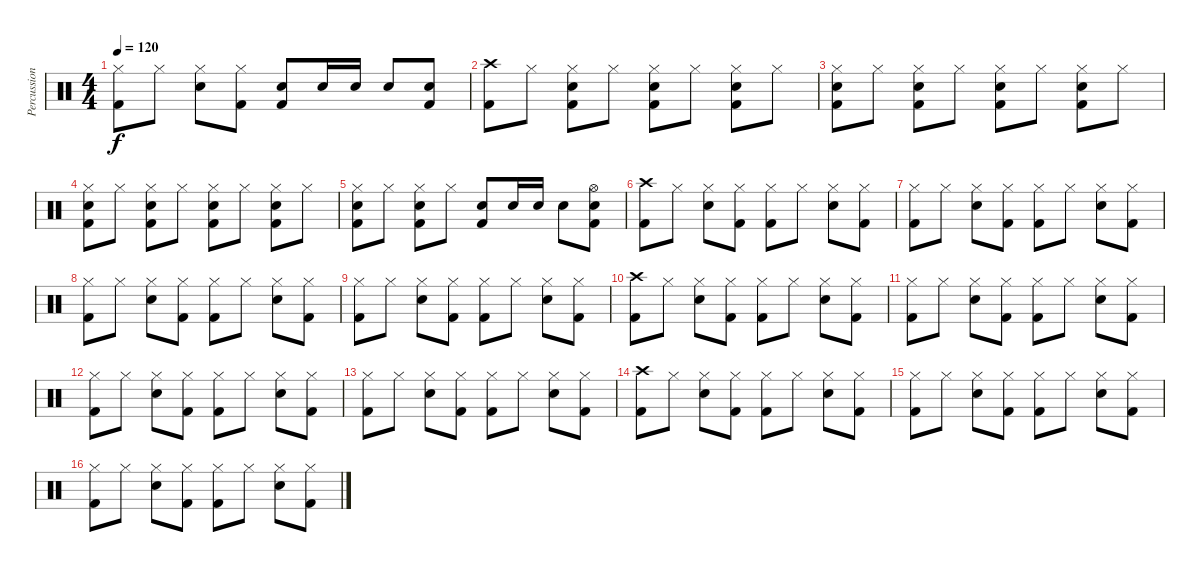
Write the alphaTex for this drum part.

\track ("Percussion" "Percussion") {instrument percussion}
\staff {score}
\articulation defaults
\ts (4 4)
\tempo 120
\clef neutral
\ks c
("Hi-Hat (closed)" "Kick (hit) 2").8{dy f} "Hi-Hat (closed)".8 ("Hi-Hat (closed)" "Snare (hit) 2").8 ("Hi-Hat (closed)" "Kick (hit) 2").8 ("Snare (hit) 2" "Kick (hit) 2").8 "Snare (hit) 2".16 "Snare (hit) 2".16 "Snare (hit) 2".8 ("Snare (hit) 2" "Kick (hit) 2").8 |
("Crash high (hit)" "Kick (hit) 2").8 "Hi-Hat (closed)".8 ("Hi-Hat (closed)" "Snare (hit) 2" "Kick (hit) 2").8 "Hi-Hat (closed)".8 ("Hi-Hat (closed)" "Snare (hit) 2" "Kick (hit) 2").8 "Hi-Hat (closed)".8 ("Hi-Hat (closed)" "Snare (hit) 2" "Kick (hit) 2").8 "Hi-Hat (closed)".8 |
("Hi-Hat (closed)" "Snare (hit) 2" "Kick (hit) 2").8 "Hi-Hat (closed)".8 ("Hi-Hat (closed)" "Snare (hit) 2" "Kick (hit) 2").8 "Hi-Hat (closed)".8 ("Hi-Hat (closed)" "Snare (hit) 2" "Kick (hit) 2").8 "Hi-Hat (closed)".8 ("Hi-Hat (closed)" "Snare (hit) 2" "Kick (hit) 2").8 "Hi-Hat (closed)".8 |
("Hi-Hat (closed)" "Snare (hit) 2" "Kick (hit) 2").8 "Hi-Hat (closed)".8 ("Hi-Hat (closed)" "Snare (hit) 2" "Kick (hit) 2").8 "Hi-Hat (closed)".8 ("Hi-Hat (closed)" "Snare (hit) 2" "Kick (hit) 2").8 "Hi-Hat (closed)".8 ("Hi-Hat (closed)" "Snare (hit) 2" "Kick (hit) 2").8 "Hi-Hat (closed)".8 |
("Hi-Hat (closed)" "Snare (hit) 2" "Kick (hit) 2").8 "Hi-Hat (closed)".8 ("Hi-Hat (closed)" "Snare (hit) 2" "Kick (hit) 2").8 "Hi-Hat (closed)".8 ("Snare (hit) 2" "Kick (hit) 2").8 "Snare (hit) 2".16 "Snare (hit) 2".16 "Snare (hit) 2".8 ("Hi-Hat (open)" "Snare (hit) 2" "Kick (hit) 2").8 |
("Crash high (hit)" "Kick (hit) 2").8 "Hi-Hat (closed)".8 ("Hi-Hat (closed)" "Snare (hit) 2").8 ("Hi-Hat (closed)" "Kick (hit) 2").8 ("Hi-Hat (closed)" "Kick (hit) 2").8 "Hi-Hat (closed)".8 ("Hi-Hat (closed)" "Snare (hit) 2").8 ("Hi-Hat (closed)" "Kick (hit) 2").8 |
("Hi-Hat (closed)" "Kick (hit) 2").8 "Hi-Hat (closed)".8 ("Hi-Hat (closed)" "Snare (hit) 2").8 ("Hi-Hat (closed)" "Kick (hit) 2").8 ("Hi-Hat (closed)" "Kick (hit) 2").8 "Hi-Hat (closed)".8 ("Hi-Hat (closed)" "Snare (hit) 2").8 ("Hi-Hat (closed)" "Kick (hit) 2").8 |
("Hi-Hat (closed)" "Kick (hit) 2").8 "Hi-Hat (closed)".8 ("Hi-Hat (closed)" "Snare (hit) 2").8 ("Hi-Hat (closed)" "Kick (hit) 2").8 ("Hi-Hat (closed)" "Kick (hit) 2").8 "Hi-Hat (closed)".8 ("Hi-Hat (closed)" "Snare (hit) 2").8 ("Hi-Hat (closed)" "Kick (hit) 2").8 |
("Hi-Hat (closed)" "Kick (hit) 2").8 "Hi-Hat (closed)".8 ("Hi-Hat (closed)" "Snare (hit) 2").8 ("Hi-Hat (closed)" "Kick (hit) 2").8 ("Hi-Hat (closed)" "Kick (hit) 2").8 "Hi-Hat (closed)".8 ("Hi-Hat (closed)" "Snare (hit) 2").8 ("Hi-Hat (closed)" "Kick (hit) 2").8 |
("Crash high (hit)" "Kick (hit) 2").8 "Hi-Hat (closed)".8 ("Hi-Hat (closed)" "Snare (hit) 2").8 ("Hi-Hat (closed)" "Kick (hit) 2").8 ("Hi-Hat (closed)" "Kick (hit) 2").8 "Hi-Hat (closed)".8 ("Hi-Hat (closed)" "Snare (hit) 2").8 ("Hi-Hat (closed)" "Kick (hit) 2").8 |
("Hi-Hat (closed)" "Kick (hit) 2").8 "Hi-Hat (closed)".8 ("Hi-Hat (closed)" "Snare (hit) 2").8 ("Hi-Hat (closed)" "Kick (hit) 2").8 ("Hi-Hat (closed)" "Kick (hit) 2").8 "Hi-Hat (closed)".8 ("Hi-Hat (closed)" "Snare (hit) 2").8 ("Hi-Hat (closed)" "Kick (hit) 2").8 |
("Hi-Hat (closed)" "Kick (hit) 2").8 "Hi-Hat (closed)".8 ("Hi-Hat (closed)" "Snare (hit) 2").8 ("Hi-Hat (closed)" "Kick (hit) 2").8 ("Hi-Hat (closed)" "Kick (hit) 2").8 "Hi-Hat (closed)".8 ("Hi-Hat (closed)" "Snare (hit) 2").8 ("Hi-Hat (closed)" "Kick (hit) 2").8 |
("Hi-Hat (closed)" "Kick (hit) 2").8 "Hi-Hat (closed)".8 ("Hi-Hat (closed)" "Snare (hit) 2").8 ("Hi-Hat (closed)" "Kick (hit) 2").8 ("Hi-Hat (closed)" "Kick (hit) 2").8 "Hi-Hat (closed)".8 ("Hi-Hat (closed)" "Snare (hit) 2").8 ("Hi-Hat (closed)" "Kick (hit) 2").8 |
("Crash high (hit)" "Kick (hit) 2").8 "Hi-Hat (closed)".8 ("Hi-Hat (closed)" "Snare (hit) 2").8 ("Hi-Hat (closed)" "Kick (hit) 2").8 ("Hi-Hat (closed)" "Kick (hit) 2").8 "Hi-Hat (closed)".8 ("Hi-Hat (closed)" "Snare (hit) 2").8 ("Hi-Hat (closed)" "Kick (hit) 2").8 |
("Hi-Hat (closed)" "Kick (hit) 2").8 "Hi-Hat (closed)".8 ("Hi-Hat (closed)" "Snare (hit) 2").8 ("Hi-Hat (closed)" "Kick (hit) 2").8 ("Hi-Hat (closed)" "Kick (hit) 2").8 "Hi-Hat (closed)".8 ("Hi-Hat (closed)" "Snare (hit) 2").8 ("Hi-Hat (closed)" "Kick (hit) 2").8 |
("Hi-Hat (closed)" "Kick (hit) 2").8 "Hi-Hat (closed)".8 ("Hi-Hat (closed)" "Snare (hit) 2").8 ("Hi-Hat (closed)" "Kick (hit) 2").8 ("Hi-Hat (closed)" "Kick (hit) 2").8 "Hi-Hat (closed)".8 ("Hi-Hat (closed)" "Snare (hit) 2").8 ("Hi-Hat (closed)" "Kick (hit) 2").8
